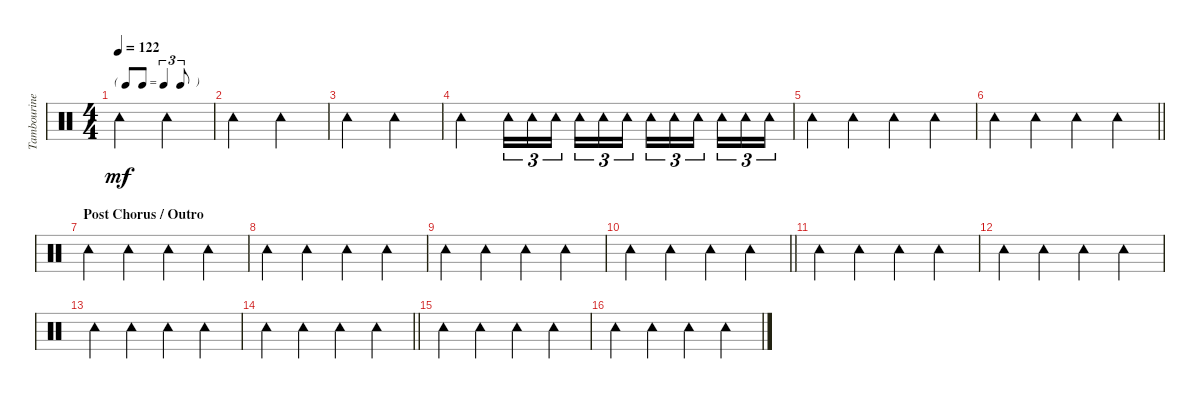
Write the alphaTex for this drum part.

\track ("Tambourine" "Tambourine") {instrument percussion}
\staff {score}
\articulation defaults
\ts (4 4)
\tf triplet8th
\tempo 122
\clef neutral
\ks c "Tambourine (hit)".2{dy mf} "Tambourine (hit)".2
|
"Tambourine (hit)".2 "Tambourine (hit)".2 |
"Tambourine (hit)".2 "Tambourine (hit)".2 |
"Tambourine (hit)".2 "Tambourine (hit)".16{tu (3 2)} "Tambourine (hit)".16{tu (3 2)} "Tambourine (hit)".16{tu (3 2)} "Tambourine (hit)".16{tu (3 2)} "Tambourine (hit)".16{tu (3 2)} "Tambourine (hit)".16{tu (3 2)} "Tambourine (hit)".16{tu (3 2)} "Tambourine (hit)".16{tu (3 2)} "Tambourine (hit)".16{tu (3 2)} "Tambourine (hit)".16{tu (3 2)} "Tambourine (hit)".16{tu (3 2)} "Tambourine (hit)".16{tu (3 2)} |
"Tambourine (hit)".4 "Tambourine (hit)".4 "Tambourine (hit)".4 "Tambourine (hit)".4 |
\barLineRight lightlight "Tambourine (hit)".4 "Tambourine (hit)".4 "Tambourine (hit)".4 "Tambourine (hit)".4
|
\section ("" "Post Chorus / Outro")
"Tambourine (hit)".4 "Tambourine (hit)".4 "Tambourine (hit)".4 "Tambourine (hit)".4 |
"Tambourine (hit)".4 "Tambourine (hit)".4 "Tambourine (hit)".4 "Tambourine (hit)".4 |
"Tambourine (hit)".4 "Tambourine (hit)".4 "Tambourine (hit)".4 "Tambourine (hit)".4 |
\barLineRight lightlight "Tambourine (hit)".4 "Tambourine (hit)".4 "Tambourine (hit)".4 "Tambourine (hit)".4
|
"Tambourine (hit)".4 "Tambourine (hit)".4 "Tambourine (hit)".4 "Tambourine (hit)".4 |
"Tambourine (hit)".4 "Tambourine (hit)".4 "Tambourine (hit)".4 "Tambourine (hit)".4 |
"Tambourine (hit)".4 "Tambourine (hit)".4 "Tambourine (hit)".4 "Tambourine (hit)".4 |
\barLineRight lightlight "Tambourine (hit)".4 "Tambourine (hit)".4 "Tambourine (hit)".4 "Tambourine (hit)".4
|
"Tambourine (hit)".4 "Tambourine (hit)".4 "Tambourine (hit)".4 "Tambourine (hit)".4 |
"Tambourine (hit)".4 "Tambourine (hit)".4 "Tambourine (hit)".4 "Tambourine (hit)".4
